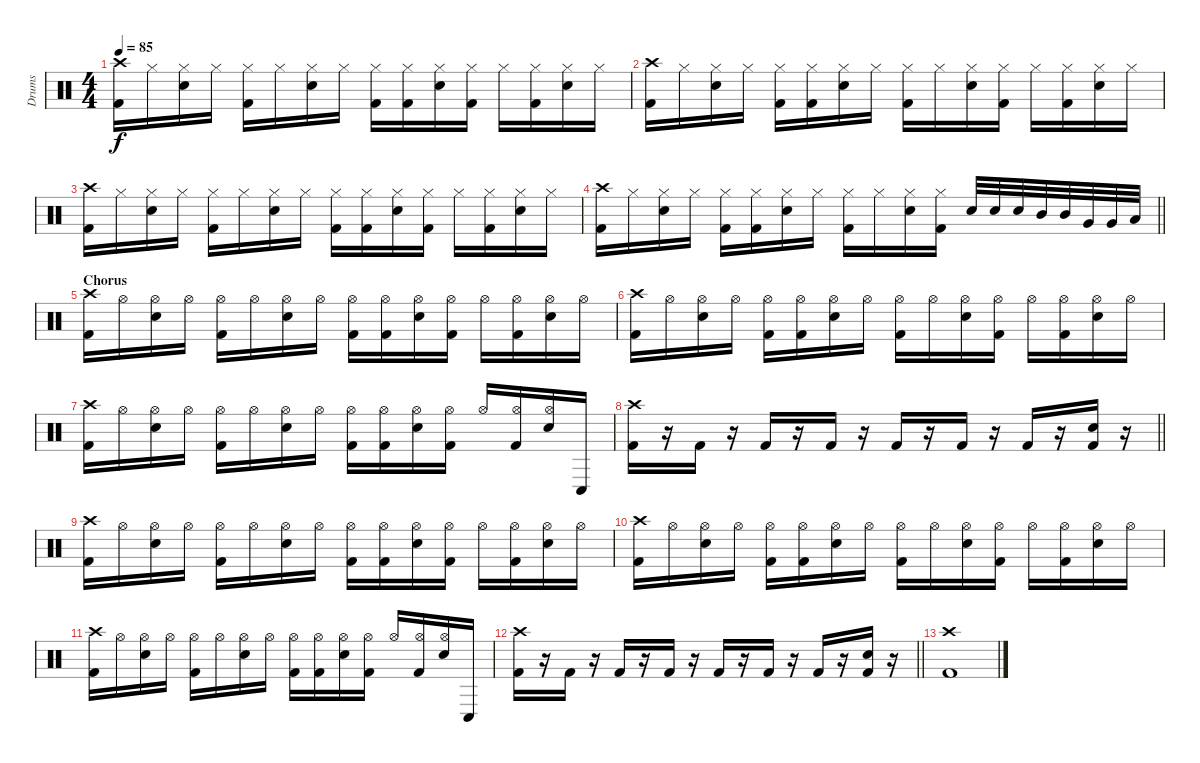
\track ("Drums" "Drums") {instrument percussion}
\staff {score}
\articulation defaults
\ts (4 4)
\tempo 85
\clef neutral
\ks c
("Crash high (hit)" "Kick (hit) 2").16{dy f} "Hi-Hat (closed)".16 ("Hi-Hat (closed)" "Snare (hit) 2").16 "Hi-Hat (closed)".16 ("Hi-Hat (closed)" "Kick (hit) 2").16 "Hi-Hat (closed)".16 ("Hi-Hat (closed)" "Snare (hit) 2").16 "Hi-Hat (closed)".16 ("Hi-Hat (closed)" "Kick (hit) 2").16 ("Hi-Hat (closed)" "Kick (hit) 2").16 ("Hi-Hat (closed)" "Snare (hit) 2").16 ("Hi-Hat (closed)" "Kick (hit) 2").16 "Hi-Hat (closed)".16 ("Hi-Hat (closed)" "Kick (hit) 2").16 ("Hi-Hat (closed)" "Snare (hit) 2").16 "Hi-Hat (closed)".16 |
("Crash high (hit)" "Kick (hit) 2").16 "Hi-Hat (closed)".16 ("Hi-Hat (closed)" "Snare (hit) 2").16 "Hi-Hat (closed)".16 ("Hi-Hat (closed)" "Kick (hit) 2").16 ("Hi-Hat (closed)" "Kick (hit) 2").16 ("Hi-Hat (closed)" "Snare (hit) 2").16 "Hi-Hat (closed)".16 ("Hi-Hat (closed)" "Kick (hit) 2").16 "Hi-Hat (closed)".16 ("Hi-Hat (closed)" "Snare (hit) 2").16 ("Hi-Hat (closed)" "Kick (hit) 2").16 "Hi-Hat (closed)".16 ("Hi-Hat (closed)" "Kick (hit) 2").16 ("Hi-Hat (closed)" "Snare (hit) 2").16 "Hi-Hat (closed)".16 |
("Crash high (hit)" "Kick (hit) 2").16 "Hi-Hat (closed)".16 ("Hi-Hat (closed)" "Snare (hit) 2").16 "Hi-Hat (closed)".16 ("Hi-Hat (closed)" "Kick (hit) 2").16 "Hi-Hat (closed)".16 ("Hi-Hat (closed)" "Snare (hit) 2").16 "Hi-Hat (closed)".16 ("Hi-Hat (closed)" "Kick (hit) 2").16 ("Hi-Hat (closed)" "Kick (hit) 2").16 ("Hi-Hat (closed)" "Snare (hit) 2").16 ("Hi-Hat (closed)" "Kick (hit) 2").16 "Hi-Hat (closed)".16 ("Hi-Hat (closed)" "Kick (hit) 2").16 ("Hi-Hat (closed)" "Snare (hit) 2").16 "Hi-Hat (closed)".16 |
\barLineRight lightlight
("Crash high (hit)" "Kick (hit) 2").16 "Hi-Hat (closed)".16 ("Hi-Hat (closed)" "Snare (hit) 2").16 "Hi-Hat (closed)".16 ("Hi-Hat (closed)" "Kick (hit) 2").16 ("Hi-Hat (closed)" "Kick (hit) 2").16 ("Hi-Hat (closed)" "Snare (hit) 2").16 "Hi-Hat (closed)".16 ("Hi-Hat (closed)" "Kick (hit) 2").16 "Hi-Hat (closed)".16 ("Hi-Hat (closed)" "Snare (hit) 2").16 ("Hi-Hat (closed)" "Kick (hit) 2").16 "Snare (hit) 2".32 "Snare (hit) 2".32 "Snare (hit) 2".32 "Mid Tom (hit)".32 "Mid Tom (hit)".32 "Very Low Tom (hit)".32 "Very Low Tom (hit)".32 "Low Floor Tom (hit)".32 |
\section ("" "Chorus")
("Crash high (hit)" "Kick (hit) 2").16 "Hi-Hat (open)".16 ("Hi-Hat (open)" "Snare (hit) 2").16 "Hi-Hat (open)".16 ("Hi-Hat (open)" "Kick (hit) 2").16 "Hi-Hat (open)".16 ("Hi-Hat (open)" "Snare (hit) 2").16 "Hi-Hat (open)".16 ("Hi-Hat (open)" "Kick (hit) 2").16 ("Hi-Hat (open)" "Kick (hit) 2").16 ("Hi-Hat (open)" "Snare (hit) 2").16 ("Hi-Hat (open)" "Kick (hit) 2").16 "Hi-Hat (open)".16 ("Hi-Hat (open)" "Kick (hit) 2").16 ("Hi-Hat (open)" "Snare (hit) 2").16 "Hi-Hat (open)".16 |
("Crash high (hit)" "Kick (hit) 2").16 "Hi-Hat (open)".16 ("Hi-Hat (open)" "Snare (hit) 2").16 "Hi-Hat (open)".16 ("Hi-Hat (open)" "Kick (hit) 2").16 ("Hi-Hat (open)" "Kick (hit) 2").16 ("Hi-Hat (open)" "Snare (hit) 2").16 "Hi-Hat (open)".16 ("Hi-Hat (open)" "Kick (hit) 2").16 "Hi-Hat (open)".16 ("Hi-Hat (open)" "Snare (hit) 2").16 ("Hi-Hat (open)" "Kick (hit) 2").16 "Hi-Hat (open)".16 ("Hi-Hat (open)" "Kick (hit) 2").16 ("Hi-Hat (open)" "Snare (hit) 2").16 "Hi-Hat (open)".16 |
("Crash high (hit)" "Kick (hit) 2").16 "Hi-Hat (open)".16 ("Hi-Hat (open)" "Snare (hit) 2").16 "Hi-Hat (open)".16 ("Hi-Hat (open)" "Kick (hit) 2").16 "Hi-Hat (open)".16 ("Hi-Hat (open)" "Snare (hit) 2").16 "Hi-Hat (open)".16 ("Hi-Hat (open)" "Kick (hit) 2").16 ("Hi-Hat (open)" "Kick (hit) 2").16 ("Hi-Hat (open)" "Snare (hit) 2").16 ("Hi-Hat (open)" "Kick (hit) 2").16 "Hi-Hat (open)".16 ("Hi-Hat (open)" "Kick (hit) 2").16 ("Hi-Hat (open)" "Snare (hit) 2").16 "Conga low (hit)".16 |
\barLineRight lightlight
("Crash high (hit)" "Kick (hit) 2").16 r.16 "Kick (hit) 2".16 r.16 "Kick (hit) 2".16 r.16 "Kick (hit) 2".16 r.16 "Kick (hit) 2".16 r.16 "Kick (hit) 2".16 r.16 "Kick (hit) 2".16 r.16 ("Snare (hit) 2" "Kick (hit) 2").16 r.16 |
("Crash high (hit)" "Kick (hit) 2").16 "Hi-Hat (open)".16 ("Hi-Hat (open)" "Snare (hit) 2").16 "Hi-Hat (open)".16 ("Hi-Hat (open)" "Kick (hit) 2").16 "Hi-Hat (open)".16 ("Hi-Hat (open)" "Snare (hit) 2").16 "Hi-Hat (open)".16 ("Hi-Hat (open)" "Kick (hit) 2").16 ("Hi-Hat (open)" "Kick (hit) 2").16 ("Hi-Hat (open)" "Snare (hit) 2").16 ("Hi-Hat (open)" "Kick (hit) 2").16 "Hi-Hat (open)".16 ("Hi-Hat (open)" "Kick (hit) 2").16 ("Hi-Hat (open)" "Snare (hit) 2").16 "Hi-Hat (open)".16 |
("Crash high (hit)" "Kick (hit) 2").16 "Hi-Hat (open)".16 ("Hi-Hat (open)" "Snare (hit) 2").16 "Hi-Hat (open)".16 ("Hi-Hat (open)" "Kick (hit) 2").16 ("Hi-Hat (open)" "Kick (hit) 2").16 ("Hi-Hat (open)" "Snare (hit) 2").16 "Hi-Hat (open)".16 ("Hi-Hat (open)" "Kick (hit) 2").16 "Hi-Hat (open)".16 ("Hi-Hat (open)" "Snare (hit) 2").16 ("Hi-Hat (open)" "Kick (hit) 2").16 "Hi-Hat (open)".16 ("Hi-Hat (open)" "Kick (hit) 2").16 ("Hi-Hat (open)" "Snare (hit) 2").16 "Hi-Hat (open)".16 |
("Crash high (hit)" "Kick (hit) 2").16 "Hi-Hat (open)".16 ("Hi-Hat (open)" "Snare (hit) 2").16 "Hi-Hat (open)".16 ("Hi-Hat (open)" "Kick (hit) 2").16 "Hi-Hat (open)".16 ("Hi-Hat (open)" "Snare (hit) 2").16 "Hi-Hat (open)".16 ("Hi-Hat (open)" "Kick (hit) 2").16 ("Hi-Hat (open)" "Kick (hit) 2").16 ("Hi-Hat (open)" "Snare (hit) 2").16 ("Hi-Hat (open)" "Kick (hit) 2").16 "Hi-Hat (open)".16 ("Hi-Hat (open)" "Kick (hit) 2").16 ("Hi-Hat (open)" "Snare (hit) 2").16 "Conga low (hit)".16 |
\barLineRight lightlight
("Crash high (hit)" "Kick (hit) 2").16 r.16 "Kick (hit) 2".16 r.16 "Kick (hit) 2".16 r.16 "Kick (hit) 2".16 r.16 "Kick (hit) 2".16 r.16 "Kick (hit) 2".16 r.16 "Kick (hit) 2".16 r.16 ("Snare (hit) 2" "Kick (hit) 2").16 r.16 |
("Crash high (hit)" "Kick (hit) 2").1
